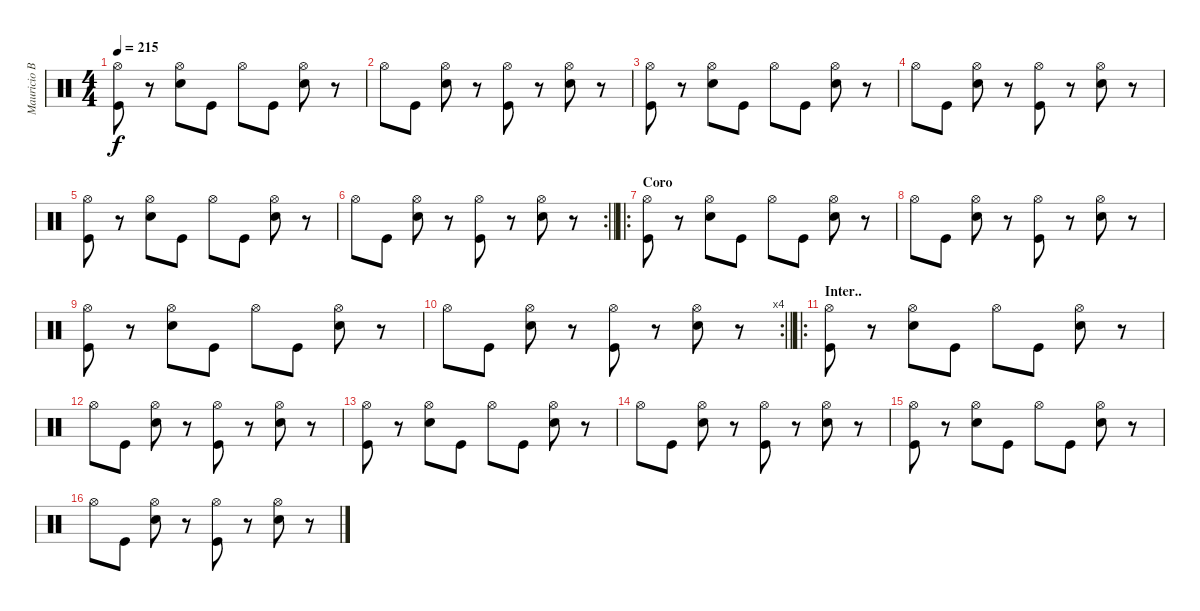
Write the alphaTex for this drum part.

\track ("Mauricio Basualto" "Mauricio B") {instrument percussion}
\staff {score}
\articulation defaults
\ts (4 4)
\tempo 215
\clef neutral
\ks c
("Hi-Hat (open)" "Kick (hit)").8{dy f} r.8 ("Hi-Hat (open)" "Electric Snare (hit)").8 "Kick (hit)".8 "Hi-Hat (open)".8 "Kick (hit)".8 ("Hi-Hat (open)" "Electric Snare (hit)").8 r.8 |
"Hi-Hat (open)".8 "Kick (hit)".8 ("Hi-Hat (open)" "Electric Snare (hit)").8 r.8 ("Hi-Hat (open)" "Kick (hit)").8 r.8 ("Hi-Hat (open)" "Electric Snare (hit)").8 r.8 |
("Hi-Hat (open)" "Kick (hit)").8 r.8 ("Hi-Hat (open)" "Electric Snare (hit)").8 "Kick (hit)".8 "Hi-Hat (open)".8 "Kick (hit)".8 ("Hi-Hat (open)" "Electric Snare (hit)").8 r.8 |
"Hi-Hat (open)".8 "Kick (hit)".8 ("Hi-Hat (open)" "Electric Snare (hit)").8 r.8 ("Hi-Hat (open)" "Kick (hit)").8 r.8 ("Hi-Hat (open)" "Electric Snare (hit)").8 r.8 |
("Hi-Hat (open)" "Kick (hit)").8 r.8 ("Hi-Hat (open)" "Electric Snare (hit)").8 "Kick (hit)".8 "Hi-Hat (open)".8 "Kick (hit)".8 ("Hi-Hat (open)" "Electric Snare (hit)").8 r.8 |
\rc 2
\barLineRight lightlight "Hi-Hat (open)".8 "Kick (hit)".8
("Hi-Hat (open)" "Electric Snare (hit)").8 r.8 ("Hi-Hat (open)" "Kick (hit)").8 r.8 ("Hi-Hat (open)" "Electric Snare (hit)").8 r.8 |
\ro
\section ("" "Coro")
("Hi-Hat (open)" "Kick (hit)").8 r.8 ("Hi-Hat (open)" "Electric Snare (hit)").8 "Kick (hit)".8 "Hi-Hat (open)".8 "Kick (hit)".8 ("Hi-Hat (open)" "Electric Snare (hit)").8 r.8 |
"Hi-Hat (open)".8 "Kick (hit)".8 ("Hi-Hat (open)" "Electric Snare (hit)").8 r.8 ("Hi-Hat (open)" "Kick (hit)").8 r.8 ("Hi-Hat (open)" "Electric Snare (hit)").8 r.8 |
("Hi-Hat (open)" "Kick (hit)").8 r.8 ("Hi-Hat (open)" "Electric Snare (hit)").8 "Kick (hit)".8 "Hi-Hat (open)".8 "Kick (hit)".8 ("Hi-Hat (open)" "Electric Snare (hit)").8 r.8 |
\rc 4
\barLineRight lightlight "Hi-Hat (open)".8 "Kick (hit)".8
("Hi-Hat (open)" "Electric Snare (hit)").8 r.8 ("Hi-Hat (open)" "Kick (hit)").8 r.8 ("Hi-Hat (open)" "Electric Snare (hit)").8 r.8 |
\ro
\section ("" "Inter..")
("Hi-Hat (open)" "Kick (hit)").8 r.8 ("Hi-Hat (open)" "Electric Snare (hit)").8 "Kick (hit)".8 "Hi-Hat (open)".8 "Kick (hit)".8 ("Hi-Hat (open)" "Electric Snare (hit)").8 r.8 |
"Hi-Hat (open)".8 "Kick (hit)".8 ("Hi-Hat (open)" "Electric Snare (hit)").8 r.8 ("Hi-Hat (open)" "Kick (hit)").8 r.8 ("Hi-Hat (open)" "Electric Snare (hit)").8 r.8 |
("Hi-Hat (open)" "Kick (hit)").8 r.8 ("Hi-Hat (open)" "Electric Snare (hit)").8 "Kick (hit)".8 "Hi-Hat (open)".8 "Kick (hit)".8 ("Hi-Hat (open)" "Electric Snare (hit)").8 r.8 |
"Hi-Hat (open)".8 "Kick (hit)".8 ("Hi-Hat (open)" "Electric Snare (hit)").8 r.8 ("Hi-Hat (open)" "Kick (hit)").8 r.8 ("Hi-Hat (open)" "Electric Snare (hit)").8 r.8 |
("Hi-Hat (open)" "Kick (hit)").8 r.8 ("Hi-Hat (open)" "Electric Snare (hit)").8 "Kick (hit)".8 "Hi-Hat (open)".8 "Kick (hit)".8 ("Hi-Hat (open)" "Electric Snare (hit)").8 r.8 |
"Hi-Hat (open)".8 "Kick (hit)".8 ("Hi-Hat (open)" "Electric Snare (hit)").8 r.8 ("Hi-Hat (open)" "Kick (hit)").8 r.8 ("Hi-Hat (open)" "Electric Snare (hit)").8 r.8
